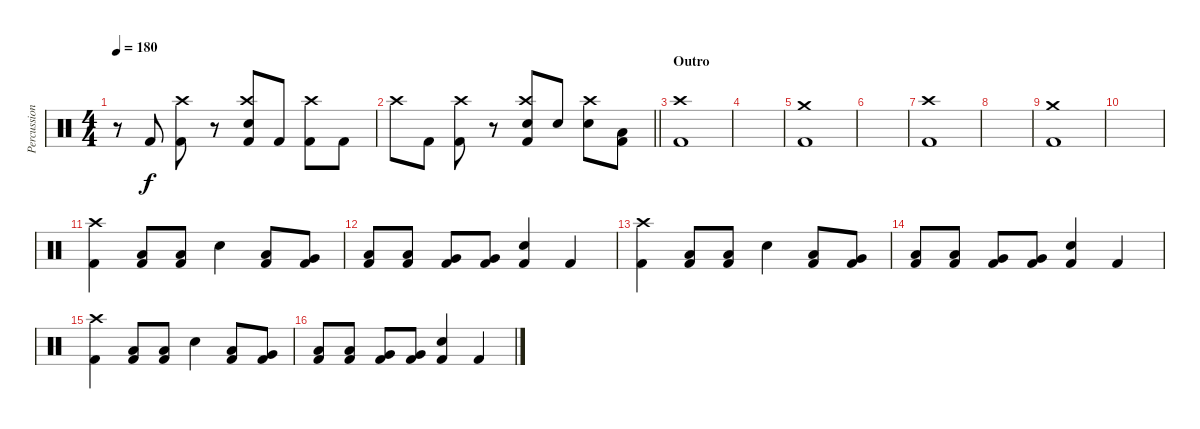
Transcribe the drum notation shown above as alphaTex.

\track ("Percussion" "Percussion") {instrument percussion}
\staff {score}
\articulation defaults
\ts (4 4)
\tempo 180
\clef neutral
\ks c
r.8{dy f} "Kick (hit) 2".8 ("Crash high (hit)" "Kick (hit) 2").8 r.8 ("Crash high (hit)" "Electric Snare (hit)" "Kick (hit) 2").8 "Kick (hit) 2".8 ("Crash high (hit)" "Kick (hit) 2").8 "Kick (hit) 2".8 |
\barLineRight lightlight "Crash high (hit)".8 "Kick (hit) 2".8
("Crash high (hit)" "Kick (hit) 2").8 r.8 ("Crash high (hit)" "Electric Snare (hit)" "Kick (hit) 2").8 "Electric Snare (hit)".8 ("Crash high (hit)" "Electric Snare (hit)").8 ("Low Tom (hit)" "Kick (hit) 2").8 |
\section ("" "Outro")
("Crash high (hit)" "Kick (hit) 2").1 |
|
("Crash medium (hit)" "Kick (hit) 2").1 |
|
("Crash high (hit)" "Kick (hit) 2").1 |
|
("Crash medium (hit)" "Kick (hit) 2").1 |
|
("Crash high (hit)" "Kick (hit) 2").4 ("Low Tom (hit)" "Kick (hit) 2").8 ("Low Tom (hit)" "Kick (hit) 2").8 "Electric Snare (hit)".4 ("Low Tom (hit)" "Kick (hit) 2").8 ("Very Low Tom (hit)" "Kick (hit) 2").8 |
("Low Tom (hit)" "Kick (hit) 2").8 ("Low Tom (hit)" "Kick (hit) 2").8 ("Very Low Tom (hit)" "Kick (hit) 2").8 ("Very Low Tom (hit)" "Kick (hit) 2").8 ("Electric Snare (hit)" "Kick (hit) 2").4 "Kick (hit) 2".4 |
("Crash high (hit)" "Kick (hit) 2").4 ("Low Tom (hit)" "Kick (hit) 2").8 ("Low Tom (hit)" "Kick (hit) 2").8 "Electric Snare (hit)".4 ("Low Tom (hit)" "Kick (hit) 2").8 ("Very Low Tom (hit)" "Kick (hit) 2").8 |
("Low Tom (hit)" "Kick (hit) 2").8 ("Low Tom (hit)" "Kick (hit) 2").8 ("Very Low Tom (hit)" "Kick (hit) 2").8 ("Very Low Tom (hit)" "Kick (hit) 2").8 ("Electric Snare (hit)" "Kick (hit) 2").4 "Kick (hit) 2".4 |
("Crash high (hit)" "Kick (hit) 2").4 ("Low Tom (hit)" "Kick (hit) 2").8 ("Low Tom (hit)" "Kick (hit) 2").8 "Electric Snare (hit)".4 ("Low Tom (hit)" "Kick (hit) 2").8 ("Very Low Tom (hit)" "Kick (hit) 2").8 |
("Low Tom (hit)" "Kick (hit) 2").8 ("Low Tom (hit)" "Kick (hit) 2").8 ("Very Low Tom (hit)" "Kick (hit) 2").8 ("Very Low Tom (hit)" "Kick (hit) 2").8 ("Electric Snare (hit)" "Kick (hit) 2").4 "Kick (hit) 2".4
